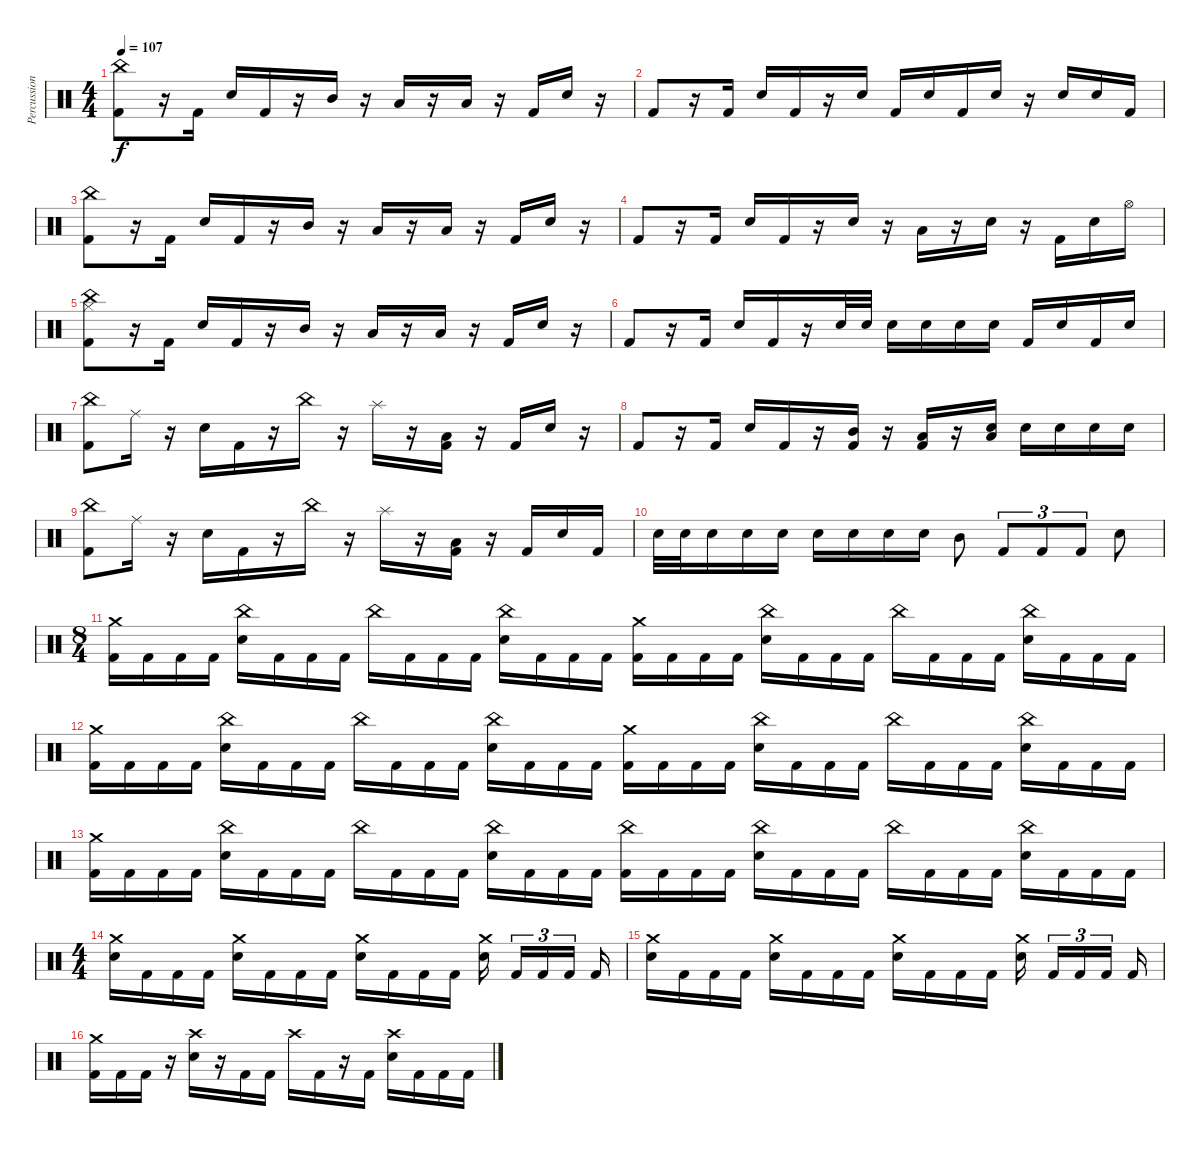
\track ("Percussion" "Percussion") {instrument percussion}
\staff {score}
\articulation defaults
\ts (4 4)
\tempo 107
\clef neutral
\ks c
("Kick (hit) 2" "China (hit)").8{dy f} r.16 "Kick (hit) 2".16 "Electric Snare (hit)".16 "Kick (hit) 2".16 r.16 "Mid Tom (hit)".16 r.16 "Low Tom (hit)".16 r.16 "Low Floor Tom (hit)".16 r.16 "Kick (hit) 2".16 "Electric Snare (hit)".16 r.16 |
"Kick (hit) 2".8 r.16 "Kick (hit) 2".16 "Electric Snare (hit)".16 "Kick (hit) 2".16 r.16 "Electric Snare (hit)".16 "Kick (hit) 2".16 "Electric Snare (hit)".16 "Kick (hit) 2".16 "Electric Snare (hit)".16 r.16 "Electric Snare (hit)".16 "Electric Snare (hit)".16 "Kick (hit) 2".16 |
("Kick (hit) 2" "China (hit)").8 r.16 "Kick (hit) 2".16 "Electric Snare (hit)".16 "Kick (hit) 2".16 r.16 "Mid Tom (hit)".16 r.16 "Low Tom (hit)".16 r.16 "Low Floor Tom (hit)".16 r.16 "Kick (hit) 2".16 "Electric Snare (hit)".16 r.16 |
"Kick (hit) 2".8 r.16 "Kick (hit) 2".16 "Electric Snare (hit)".16 "Kick (hit) 2".16 r.16 "Electric Snare (hit)".16 r.16 "Low Tom (hit)".16 r.16 "Electric Snare (hit)".16 r.16 "Kick (hit) 2".16 "Electric Snare (hit)".16 "Hi-Hat (open)".16 |
("Hi-Hat (closed)" "China (hit)" "Kick (hit) 2").8 r.16 "Kick (hit) 2".16 "Electric Snare (hit)".16 "Kick (hit) 2".16 r.16 "Mid Tom (hit)".16 r.16 "Low Tom (hit)".16 r.16 "Low Floor Tom (hit)".16 r.16 "Kick (hit) 2".16 "Electric Snare (hit)".16 r.16 |
"Kick (hit) 2".8 r.16 "Kick (hit) 2".16 "Electric Snare (hit)".16 "Kick (hit) 2".16 r.16 "Electric Snare (hit)".32 "Electric Snare (hit)".32 "Electric Snare (hit)".16 "Electric Snare (hit)".16 "Electric Snare (hit)".16 "Electric Snare (hit)".16 "Kick (hit) 2".16 "Electric Snare (hit)".16 "Kick (hit) 2".16 "Electric Snare (hit)".16 |
("Kick (hit) 2" "China (hit)").8 "Ride (middle)".16 r.16 "Electric Snare (hit)".16 "Kick (hit) 2".16 r.16 "China (hit)".16 r.16 "Splash (hit)".16 r.16 ("Kick (hit) 2" "Low Tom (hit)").16 r.16 "Kick (hit) 2".16 "Electric Snare (hit)".16 r.16 |
"Kick (hit) 2".8 r.16 "Kick (hit) 2".16 "Electric Snare (hit)".16 "Kick (hit) 2".16 r.16 ("Kick (hit) 2" "Mid Tom (hit)").16 r.16 ("Kick (hit) 2" "Low Tom (hit)").16 r.16 ("Electric Snare (hit)" "Low Floor Tom (hit)").16 "Electric Snare (hit)".16 "Electric Snare (hit)".16 "Electric Snare (hit)".16 "Electric Snare (hit)".16 |
("Kick (hit) 2" "China (hit)").8 "Ride (middle)".16 r.16 "Electric Snare (hit)".16 "Kick (hit) 2".16 r.16 "China (hit)".16 r.16 "Splash (hit)".16 r.16 ("Kick (hit) 2" "Low Tom (hit)").16 r.16 "Kick (hit) 2".16 "Electric Snare (hit)".16 "Kick (hit) 2".16 |
"Electric Snare (hit)".32 "Electric Snare (hit)".32 "Electric Snare (hit)".16 "Electric Snare (hit)".16 "Electric Snare (hit)".16 "Electric Snare (hit)".16 "Electric Snare (hit)".16 "Electric Snare (hit)".16 "Electric Snare (hit)".16 "Mid Tom (hit)".8 "Kick (hit) 2".8{tu (3 2)} "Kick (hit) 2".8{tu (3 2)} "Kick (hit) 2".8{tu (3 2)} "Electric Snare (hit)".8 |
\ts (8 4)
("Crash medium (hit)" "Kick (hit) 2").16 "Kick (hit) 2".16 "Kick (hit) 2".16 "Kick (hit) 2".16 ("China (hit)" "Electric Snare (hit)").16 "Kick (hit) 2".16 "Kick (hit) 2".16 "Kick (hit) 2".16 "China (hit)".16 "Kick (hit) 2".16 "Kick (hit) 2".16 "Kick (hit) 2".16 ("China (hit)" "Electric Snare (hit)").16 "Kick (hit) 2".16 "Kick (hit) 2".16 "Kick (hit) 2".16 ("Crash medium (hit)" "Kick (hit) 2").16 "Kick (hit) 2".16 "Kick (hit) 2".16 "Kick (hit) 2".16 ("China (hit)" "Electric Snare (hit)").16 "Kick (hit) 2".16 "Kick (hit) 2".16 "Kick (hit) 2".16 "China (hit)".16 "Kick (hit) 2".16 "Kick (hit) 2".16 "Kick (hit) 2".16 ("China (hit)" "Electric Snare (hit)").16 "Kick (hit) 2".16 "Kick (hit) 2".16 "Kick (hit) 2".16 |
("Crash medium (hit)" "Kick (hit) 2").16 "Kick (hit) 2".16 "Kick (hit) 2".16 "Kick (hit) 2".16 ("China (hit)" "Electric Snare (hit)").16 "Kick (hit) 2".16 "Kick (hit) 2".16 "Kick (hit) 2".16 "China (hit)".16 "Kick (hit) 2".16 "Kick (hit) 2".16 "Kick (hit) 2".16 ("China (hit)" "Electric Snare (hit)").16 "Kick (hit) 2".16 "Kick (hit) 2".16 "Kick (hit) 2".16 ("Crash medium (hit)" "Kick (hit) 2").16 "Kick (hit) 2".16 "Kick (hit) 2".16 "Kick (hit) 2".16 ("China (hit)" "Electric Snare (hit)").16 "Kick (hit) 2".16 "Kick (hit) 2".16 "Kick (hit) 2".16 "China (hit)".16 "Kick (hit) 2".16 "Kick (hit) 2".16 "Kick (hit) 2".16 ("China (hit)" "Electric Snare (hit)").16 "Kick (hit) 2".16 "Kick (hit) 2".16 "Kick (hit) 2".16 |
("Crash medium (hit)" "Kick (hit) 2").16 "Kick (hit) 2".16 "Kick (hit) 2".16 "Kick (hit) 2".16 ("China (hit)" "Electric Snare (hit)").16 "Kick (hit) 2".16 "Kick (hit) 2".16 "Kick (hit) 2".16 "China (hit)".16 "Kick (hit) 2".16 "Kick (hit) 2".16 "Kick (hit) 2".16 ("China (hit)" "Electric Snare (hit)").16 "Kick (hit) 2".16 "Kick (hit) 2".16 "Kick (hit) 2".16 ("China (hit)" "Kick (hit) 2").16 "Kick (hit) 2".16 "Kick (hit) 2".16 "Kick (hit) 2".16 ("China (hit)" "Electric Snare (hit)").16 "Kick (hit) 2".16 "Kick (hit) 2".16 "Kick (hit) 2".16 "China (hit)".16 "Kick (hit) 2".16 "Kick (hit) 2".16 "Kick (hit) 2".16 ("China (hit)" "Electric Snare (hit)").16 "Kick (hit) 2".16 "Kick (hit) 2".16 "Kick (hit) 2".16 |
\ts (4 4)
("Crash medium (hit)" "Electric Snare (hit)").16 "Kick (hit) 2".16 "Kick (hit) 2".16 "Kick (hit) 2".16 ("Crash medium (hit)" "Electric Snare (hit)").16 "Kick (hit) 2".16 "Kick (hit) 2".16 "Kick (hit) 2".16 ("Crash medium (hit)" "Electric Snare (hit)").16 "Kick (hit) 2".16 "Kick (hit) 2".16 "Kick (hit) 2".16 ("Crash medium (hit)" "Electric Snare (hit)").16{beam splitsecondary} "Kick (hit) 2".16{tu (3 2)} "Kick (hit) 2".16{tu (3 2)} "Kick (hit) 2".16{tu (3 2) beam splitsecondary} "Kick (hit) 2".16 |
("Crash medium (hit)" "Electric Snare (hit)").16 "Kick (hit) 2".16 "Kick (hit) 2".16 "Kick (hit) 2".16 ("Crash medium (hit)" "Electric Snare (hit)").16 "Kick (hit) 2".16 "Kick (hit) 2".16 "Kick (hit) 2".16 ("Crash medium (hit)" "Electric Snare (hit)").16 "Kick (hit) 2".16 "Kick (hit) 2".16 "Kick (hit) 2".16 ("Crash medium (hit)" "Electric Snare (hit)").16{beam splitsecondary} "Kick (hit) 2".16{tu (3 2)} "Kick (hit) 2".16{tu (3 2)} "Kick (hit) 2".16{tu (3 2) beam splitsecondary} "Kick (hit) 2".16 |
("Crash medium (hit)" "Kick (hit) 2").16 "Kick (hit) 2".16 "Kick (hit) 2".16 r.16 ("Crash high (hit)" "Electric Snare (hit)").16 r.16 "Kick (hit) 2".16 "Kick (hit) 2".16 "Crash high (hit)".16 "Kick (hit) 2".16 r.16 "Kick (hit) 2".16 ("Crash high (hit)" "Electric Snare (hit)").16 "Kick (hit) 2".16 "Kick (hit) 2".16 "Kick (hit) 2".16
